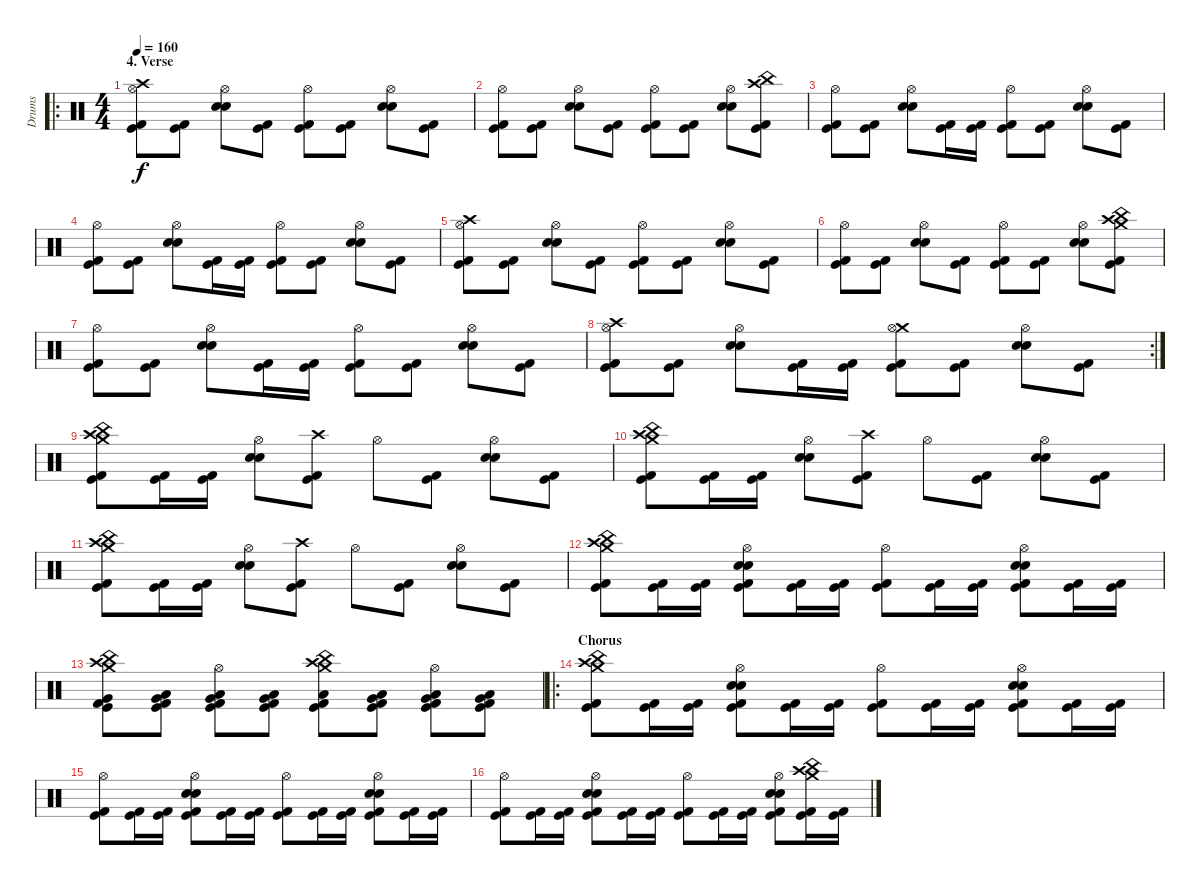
\track ("Drums" "Drums") {instrument percussion}
\staff {score}
\articulation defaults
\ro
\ts (4 4)
\section ("" "4. Verse")
\tempo 160
\clef neutral
\ks c
("Crash high (hit)" "Hi-Hat (open)" "Kick (hit) 2" "Kick (hit)").8{dy f} ("Kick (hit)" "Kick (hit) 2").8 ("Hi-Hat (open)" "Electric Snare (hit)" "Snare (hit) 2").8 ("Kick (hit)" "Kick (hit) 2").8 ("Hi-Hat (open)" "Kick (hit)" "Kick (hit) 2").8 ("Kick (hit)" "Kick (hit) 2").8 ("Hi-Hat (open)" "Snare (hit) 2" "Electric Snare (hit)").8 ("Kick (hit)" "Kick (hit) 2").8 |
("Hi-Hat (open)" "Kick (hit) 2" "Kick (hit)").8 ("Kick (hit)" "Kick (hit) 2").8 ("Hi-Hat (open)" "Electric Snare (hit)" "Snare (hit) 2").8 ("Kick (hit)" "Kick (hit) 2").8 ("Hi-Hat (open)" "Kick (hit)" "Kick (hit) 2").8 ("Kick (hit)" "Kick (hit) 2").8 ("Hi-Hat (open)" "Snare (hit) 2" "Electric Snare (hit)").8 ("Crash high (hit)" "China (hit)" "Kick (hit)" "Kick (hit) 2").8 |
("Hi-Hat (open)" "Kick (hit) 2" "Kick (hit)").8 ("Kick (hit)" "Kick (hit) 2").8 ("Hi-Hat (open)" "Electric Snare (hit)" "Snare (hit) 2").8 ("Kick (hit) 2" "Kick (hit)").16 ("Kick (hit)" "Kick (hit) 2").16 ("Hi-Hat (open)" "Kick (hit)" "Kick (hit) 2").8 ("Kick (hit)" "Kick (hit) 2").8 ("Hi-Hat (open)" "Snare (hit) 2" "Electric Snare (hit)").8 ("Kick (hit)" "Kick (hit) 2").8 |
("Hi-Hat (open)" "Kick (hit) 2" "Kick (hit)").8 ("Kick (hit)" "Kick (hit) 2").8 ("Hi-Hat (open)" "Electric Snare (hit)" "Snare (hit) 2").8 ("Kick (hit)" "Kick (hit) 2").16 ("Kick (hit)" "Kick (hit) 2").16 ("Hi-Hat (open)" "Kick (hit)" "Kick (hit) 2").8 ("Kick (hit)" "Kick (hit) 2").8 ("Hi-Hat (open)" "Snare (hit) 2" "Electric Snare (hit)").8 ("Kick (hit)" "Kick (hit) 2").8 |
("Crash high (hit)" "Hi-Hat (open)" "Kick (hit) 2" "Kick (hit)").8 ("Kick (hit)" "Kick (hit) 2").8 ("Hi-Hat (open)" "Electric Snare (hit)" "Snare (hit) 2").8 ("Kick (hit)" "Kick (hit) 2").8 ("Hi-Hat (open)" "Kick (hit)" "Kick (hit) 2").8 ("Kick (hit)" "Kick (hit) 2").8 ("Hi-Hat (open)" "Snare (hit) 2" "Electric Snare (hit)").8 ("Kick (hit)" "Kick (hit) 2").8 |
("Hi-Hat (open)" "Kick (hit) 2" "Kick (hit)").8 ("Kick (hit)" "Kick (hit) 2").8 ("Hi-Hat (open)" "Electric Snare (hit)" "Snare (hit) 2").8 ("Kick (hit)" "Kick (hit) 2").8 ("Hi-Hat (open)" "Kick (hit)" "Kick (hit) 2").8 ("Kick (hit)" "Kick (hit) 2").8 ("Hi-Hat (open)" "Snare (hit) 2" "Electric Snare (hit)").8 ("Crash high (hit)" "Crash medium (hit)" "China (hit)" "Kick (hit)" "Kick (hit) 2").8 |
("Hi-Hat (open)" "Kick (hit) 2" "Kick (hit)").8 ("Kick (hit)" "Kick (hit) 2").8 ("Hi-Hat (open)" "Electric Snare (hit)" "Snare (hit) 2").8 ("Kick (hit)" "Kick (hit) 2").16 ("Kick (hit)" "Kick (hit) 2").16 ("Hi-Hat (open)" "Kick (hit)" "Kick (hit) 2").8 ("Kick (hit)" "Kick (hit) 2").8 ("Hi-Hat (open)" "Snare (hit) 2" "Electric Snare (hit)").8 ("Kick (hit)" "Kick (hit) 2").8 |
\rc 2
("Crash high (hit)" "Hi-Hat (open)" "Kick (hit) 2" "Kick (hit)").8 ("Kick (hit)" "Kick (hit) 2").8 ("Hi-Hat (open)" "Electric Snare (hit)" "Snare (hit) 2").8 ("Kick (hit) 2" "Kick (hit)").16 ("Kick (hit)" "Kick (hit) 2").16 ("Crash medium (hit)" "Hi-Hat (open)" "Kick (hit)" "Kick (hit) 2").8 ("Kick (hit)" "Kick (hit) 2").8 ("Hi-Hat (open)" "Snare (hit) 2" "Electric Snare (hit)").8 ("Kick (hit)" "Kick (hit) 2").8 |
("Crash medium (hit)" "Crash high (hit)" "China (hit)" "Kick (hit) 2" "Kick (hit)").8 ("Kick (hit)" "Kick (hit) 2").16 ("Kick (hit)" "Kick (hit) 2").16 ("Hi-Hat (open)" "Electric Snare (hit)" "Snare (hit) 2").8 ("Crash high (hit)" "Kick (hit) 2" "Kick (hit)").8 "Hi-Hat (open)".8 ("Kick (hit) 2" "Kick (hit)").8 ("Hi-Hat (open)" "Electric Snare (hit)" "Snare (hit) 2").8 ("Kick (hit) 2" "Kick (hit)").8 |
("Crash medium (hit)" "Crash high (hit)" "China (hit)" "Kick (hit) 2" "Kick (hit)").8 ("Kick (hit)" "Kick (hit) 2").16 ("Kick (hit)" "Kick (hit) 2").16 ("Hi-Hat (open)" "Electric Snare (hit)" "Snare (hit) 2").8 ("Crash high (hit)" "Kick (hit) 2" "Kick (hit)").8 "Hi-Hat (open)".8 ("Kick (hit) 2" "Kick (hit)").8 ("Hi-Hat (open)" "Electric Snare (hit)" "Snare (hit) 2").8 ("Kick (hit) 2" "Kick (hit)").8 |
("Crash medium (hit)" "Crash high (hit)" "China (hit)" "Kick (hit) 2" "Kick (hit)").8 ("Kick (hit)" "Kick (hit) 2").16 ("Kick (hit)" "Kick (hit) 2").16 ("Hi-Hat (open)" "Electric Snare (hit)" "Snare (hit) 2").8 ("Crash high (hit)" "Kick (hit) 2" "Kick (hit)").8 "Hi-Hat (open)".8 ("Kick (hit) 2" "Kick (hit)").8 ("Hi-Hat (open)" "Electric Snare (hit)" "Snare (hit) 2").8 ("Kick (hit) 2" "Kick (hit)").8 |
("Crash high (hit)" "Crash medium (hit)" "China (hit)" "Kick (hit)" "Kick (hit) 2").8 ("Kick (hit) 2" "Kick (hit)").16 ("Kick (hit) 2" "Kick (hit)").16 ("Hi-Hat (open)" "Electric Snare (hit)" "Snare (hit) 2" "Kick (hit) 2" "Kick (hit)").8 ("Kick (hit) 2" "Kick (hit)").16 ("Kick (hit) 2" "Kick (hit)").16 ("Hi-Hat (open)" "Kick (hit) 2" "Kick (hit)").8 ("Kick (hit) 2" "Kick (hit)").16 ("Kick (hit) 2" "Kick (hit)").16 ("Hi-Hat (open)" "Snare (hit) 2" "Electric Snare (hit)" "Kick (hit) 2" "Kick (hit)").8 ("Kick (hit) 2" "Kick (hit)").16 ("Kick (hit) 2" "Kick (hit)").16 |
("Crash high (hit)" "Crash medium (hit)" "Very Low Tom (hit)" "China (hit)" "Kick (hit) 2" "Kick (hit)").8 ("Very Low Tom (hit)" "Low Floor Tom (hit)" "Kick (hit) 2" "Kick (hit)").8 ("Hi-Hat (open)" "Very Low Tom (hit)" "Low Floor Tom (hit)" "Kick (hit) 2" "Kick (hit)").8 ("Very Low Tom (hit)" "Low Floor Tom (hit)" "Kick (hit) 2" "Kick (hit)").8 ("Crash high (hit)" "Crash medium (hit)" "Low Tom (hit)" "China (hit)" "Kick (hit) 2" "Kick (hit)").8 ("Low Tom (hit)" "Very Low Tom (hit)" "Kick (hit) 2" "Kick (hit)").8 ("Hi-Hat (open)" "Low Tom (hit)" "Very Low Tom (hit)" "Kick (hit) 2" "Kick (hit)").8 ("Low Tom (hit)" "Very Low Tom (hit)" "Kick (hit) 2" "Kick (hit)").8 |
\ro
\section ("" "Chorus")
("Crash high (hit)" "Crash medium (hit)" "China (hit)" "Kick (hit) 2" "Kick (hit)").8 ("Kick (hit) 2" "Kick (hit)").16 ("Kick (hit) 2" "Kick (hit)").16 ("Hi-Hat (open)" "Electric Snare (hit)" "Snare (hit) 2" "Kick (hit) 2" "Kick (hit)").8 ("Kick (hit) 2" "Kick (hit)").16 ("Kick (hit) 2" "Kick (hit)").16 ("Hi-Hat (open)" "Kick (hit) 2" "Kick (hit)").8 ("Kick (hit) 2" "Kick (hit)").16 ("Kick (hit) 2" "Kick (hit)").16 ("Hi-Hat (open)" "Electric Snare (hit)" "Snare (hit) 2" "Kick (hit) 2" "Kick (hit)").8 ("Kick (hit) 2" "Kick (hit)").16 ("Kick (hit) 2" "Kick (hit)").16 |
("Hi-Hat (open)" "Kick (hit) 2" "Kick (hit)").8 ("Kick (hit) 2" "Kick (hit)").16 ("Kick (hit) 2" "Kick (hit)").16 ("Hi-Hat (open)" "Electric Snare (hit)" "Snare (hit) 2" "Kick (hit) 2" "Kick (hit)").8 ("Kick (hit) 2" "Kick (hit)").16 ("Kick (hit) 2" "Kick (hit)").16 ("Hi-Hat (open)" "Kick (hit) 2" "Kick (hit)").8 ("Kick (hit) 2" "Kick (hit)").16 ("Kick (hit) 2" "Kick (hit)").16 ("Hi-Hat (open)" "Electric Snare (hit)" "Snare (hit) 2" "Kick (hit) 2" "Kick (hit)").8 ("Kick (hit) 2" "Kick (hit)").16 ("Kick (hit) 2" "Kick (hit)").16 |
("Hi-Hat (open)" "Kick (hit) 2" "Kick (hit)").8 ("Kick (hit) 2" "Kick (hit)").16 ("Kick (hit) 2" "Kick (hit)").16 ("Hi-Hat (open)" "Electric Snare (hit)" "Snare (hit) 2" "Kick (hit) 2" "Kick (hit)").8 ("Kick (hit) 2" "Kick (hit)").16 ("Kick (hit) 2" "Kick (hit)").16 ("Hi-Hat (open)" "Kick (hit) 2" "Kick (hit)").8 ("Kick (hit) 2" "Kick (hit)").16 ("Kick (hit) 2" "Kick (hit)").16 ("Hi-Hat (open)" "Electric Snare (hit)" "Snare (hit) 2" "Kick (hit) 2" "Kick (hit)").8 ("Crash high (hit)" "China (hit)" "Crash medium (hit)" "Kick (hit) 2" "Kick (hit)").16 ("Kick (hit) 2" "Kick (hit)").16
